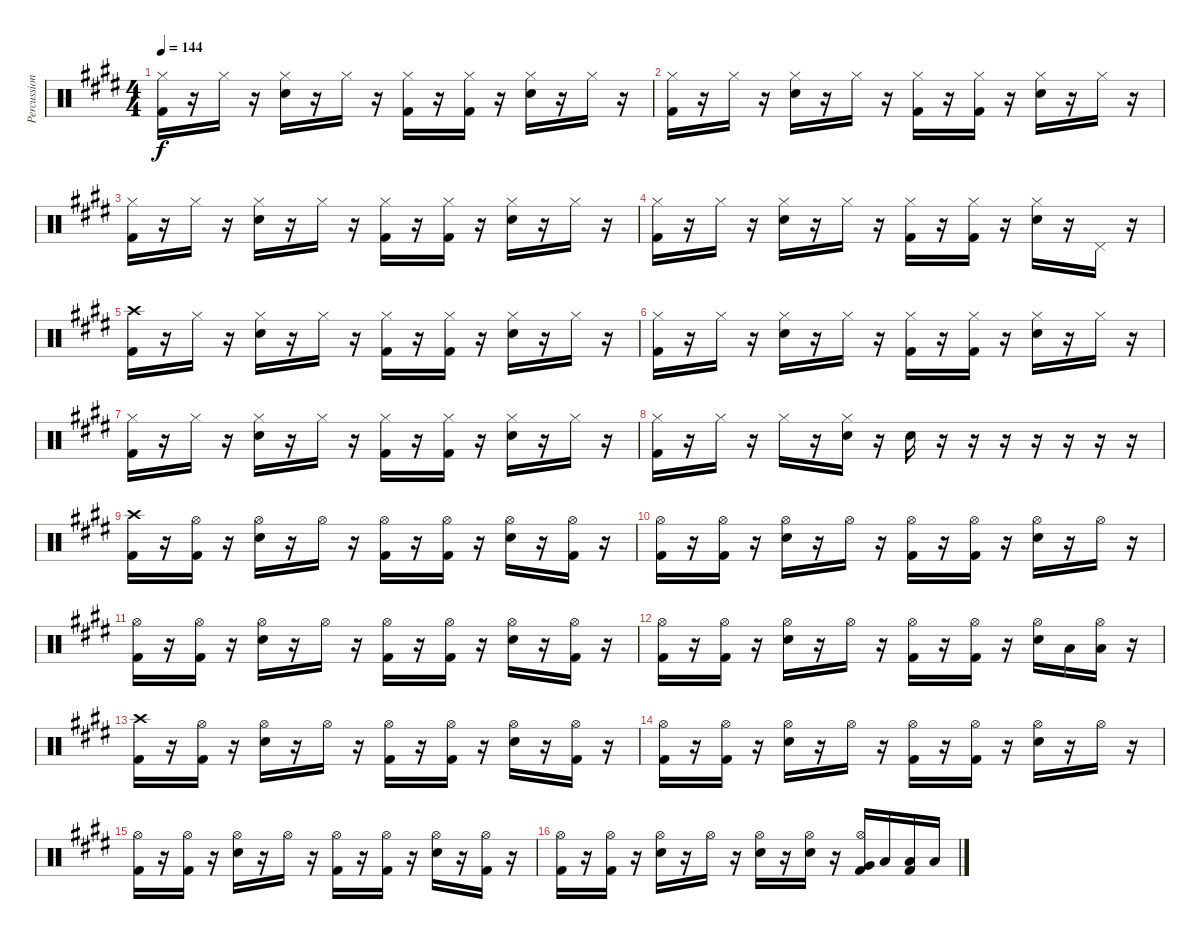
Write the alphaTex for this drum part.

\track ("Percussion" "Percussion") {instrument percussion}
\staff {score}
\articulation defaults
\ts (4 4)
\tempo 144
\clef neutral
\ks e
("Hi-Hat (closed)" "Kick (hit) 2").16{dy f} r.16 "Hi-Hat (closed)".16 r.16 ("Hi-Hat (closed)" "Snare (hit) 2").16 r.16 "Hi-Hat (closed)".16 r.16 ("Hi-Hat (closed)" "Kick (hit) 2").16 r.16 ("Hi-Hat (closed)" "Kick (hit) 2").16 r.16 ("Hi-Hat (closed)" "Snare (hit) 2").16 r.16 "Hi-Hat (closed)".16 r.16 |
("Hi-Hat (closed)" "Kick (hit) 2").16 r.16 "Hi-Hat (closed)".16 r.16 ("Hi-Hat (closed)" "Snare (hit) 2").16 r.16 "Hi-Hat (closed)".16 r.16 ("Hi-Hat (closed)" "Kick (hit) 2").16 r.16 ("Hi-Hat (closed)" "Kick (hit) 2").16 r.16 ("Hi-Hat (closed)" "Snare (hit) 2").16 r.16 "Hi-Hat (closed)".16 r.16 |
("Hi-Hat (closed)" "Kick (hit) 2").16 r.16 "Hi-Hat (closed)".16 r.16 ("Hi-Hat (closed)" "Snare (hit) 2").16 r.16 "Hi-Hat (closed)".16 r.16 ("Hi-Hat (closed)" "Kick (hit) 2").16 r.16 ("Hi-Hat (closed)" "Kick (hit) 2").16 r.16 ("Hi-Hat (closed)" "Snare (hit) 2").16 r.16 "Hi-Hat (closed)".16 r.16 |
("Hi-Hat (closed)" "Kick (hit) 2").16 r.16 "Hi-Hat (closed)".16 r.16 ("Hi-Hat (closed)" "Snare (hit) 2").16 r.16 "Hi-Hat (closed)".16 r.16 ("Hi-Hat (closed)" "Kick (hit) 2").16 r.16 ("Hi-Hat (closed)" "Kick (hit) 2").16 r.16 ("Hi-Hat (closed)" "Snare (hit) 2").16 r.16 "Pedal Hi-Hat (hit)".16 r.16 |
("Crash high (hit)" "Kick (hit) 2").16 r.16 "Hi-Hat (closed)".16 r.16 ("Hi-Hat (closed)" "Snare (hit) 2").16 r.16 "Hi-Hat (closed)".16 r.16 ("Hi-Hat (closed)" "Kick (hit) 2").16 r.16 ("Hi-Hat (closed)" "Kick (hit) 2").16 r.16 ("Hi-Hat (closed)" "Snare (hit) 2").16 r.16 "Hi-Hat (closed)".16 r.16 |
("Hi-Hat (closed)" "Kick (hit) 2").16 r.16 "Hi-Hat (closed)".16 r.16 ("Hi-Hat (closed)" "Snare (hit) 2").16 r.16 "Hi-Hat (closed)".16 r.16 ("Hi-Hat (closed)" "Kick (hit) 2").16 r.16 ("Hi-Hat (closed)" "Kick (hit) 2").16 r.16 ("Hi-Hat (closed)" "Snare (hit) 2").16 r.16 "Hi-Hat (closed)".16 r.16 |
("Hi-Hat (closed)" "Kick (hit) 2").16 r.16 "Hi-Hat (closed)".16 r.16 ("Hi-Hat (closed)" "Snare (hit) 2").16 r.16 "Hi-Hat (closed)".16 r.16 ("Hi-Hat (closed)" "Kick (hit) 2").16 r.16 ("Hi-Hat (closed)" "Kick (hit) 2").16 r.16 ("Hi-Hat (closed)" "Snare (hit) 2").16 r.16 "Hi-Hat (closed)".16 r.16 |
("Hi-Hat (closed)" "Kick (hit) 2").16 r.16 "Hi-Hat (closed)".16 r.16 "Hi-Hat (closed)".16 r.16 ("Hi-Hat (closed)" "Snare (hit) 2").16 r.16 "Snare (hit) 2".16 r.16 r.16 r.16 r.16 r.16 r.16 r.16 |
("Crash high (hit)" "Kick (hit) 2").16 r.16 ("Hi-Hat (open)" "Kick (hit) 2").16 r.16 ("Hi-Hat (open)" "Snare (hit) 2").16 r.16 "Hi-Hat (open)".16 r.16 ("Hi-Hat (open)" "Kick (hit) 2").16 r.16 ("Hi-Hat (open)" "Kick (hit) 2").16 r.16 ("Hi-Hat (open)" "Snare (hit) 2").16 r.16 ("Hi-Hat (open)" "Kick (hit) 2").16 r.16 |
("Hi-Hat (open)" "Kick (hit) 2").16 r.16 ("Hi-Hat (open)" "Kick (hit) 2").16 r.16 ("Hi-Hat (open)" "Snare (hit) 2").16 r.16 "Hi-Hat (open)".16 r.16 ("Hi-Hat (open)" "Kick (hit) 2").16 r.16 ("Hi-Hat (open)" "Kick (hit) 2").16 r.16 ("Hi-Hat (open)" "Snare (hit) 2").16 r.16 "Hi-Hat (open)".16 r.16 |
("Hi-Hat (open)" "Kick (hit) 2").16 r.16 ("Hi-Hat (open)" "Kick (hit) 2").16 r.16 ("Hi-Hat (open)" "Snare (hit) 2").16 r.16 "Hi-Hat (open)".16 r.16 ("Hi-Hat (open)" "Kick (hit) 2").16 r.16 ("Hi-Hat (open)" "Kick (hit) 2").16 r.16 ("Hi-Hat (open)" "Snare (hit) 2").16 r.16 ("Hi-Hat (open)" "Kick (hit) 2").16 r.16 |
("Hi-Hat (open)" "Kick (hit) 2").16 r.16 ("Hi-Hat (open)" "Kick (hit) 2").16 r.16 ("Hi-Hat (open)" "Snare (hit) 2").16 r.16 "Hi-Hat (open)".16 r.16 ("Hi-Hat (open)" "Kick (hit) 2").16 r.16 ("Hi-Hat (open)" "Kick (hit) 2").16 r.16 ("Hi-Hat (open)" "Snare (hit) 2").16 "Low Tom (hit)".16 ("Hi-Hat (open)" "Low Tom (hit)").16 r.16 |
("Crash high (hit)" "Kick (hit) 2").16 r.16 ("Hi-Hat (open)" "Kick (hit) 2").16 r.16 ("Hi-Hat (open)" "Snare (hit) 2").16 r.16 "Hi-Hat (open)".16 r.16 ("Hi-Hat (open)" "Kick (hit) 2").16 r.16 ("Hi-Hat (open)" "Kick (hit) 2").16 r.16 ("Hi-Hat (open)" "Snare (hit) 2").16 r.16 ("Hi-Hat (open)" "Kick (hit) 2").16 r.16 |
("Hi-Hat (open)" "Kick (hit) 2").16 r.16 ("Hi-Hat (open)" "Kick (hit) 2").16 r.16 ("Hi-Hat (open)" "Snare (hit) 2").16 r.16 "Hi-Hat (open)".16 r.16 ("Hi-Hat (open)" "Kick (hit) 2").16 r.16 ("Hi-Hat (open)" "Kick (hit) 2").16 r.16 ("Hi-Hat (open)" "Snare (hit) 2").16 r.16 "Hi-Hat (open)".16 r.16 |
("Hi-Hat (open)" "Kick (hit) 2").16 r.16 ("Hi-Hat (open)" "Kick (hit) 2").16 r.16 ("Hi-Hat (open)" "Snare (hit) 2").16 r.16 "Hi-Hat (open)".16 r.16 ("Hi-Hat (open)" "Kick (hit) 2").16 r.16 ("Hi-Hat (open)" "Kick (hit) 2").16 r.16 ("Hi-Hat (open)" "Snare (hit) 2").16 r.16 ("Hi-Hat (open)" "Kick (hit) 2").16 r.16 |
("Hi-Hat (open)" "Kick (hit) 2").16 r.16 ("Hi-Hat (open)" "Kick (hit) 2").16 r.16 ("Hi-Hat (open)" "Snare (hit) 2").16 r.16 "Hi-Hat (open)".16 r.16 ("Hi-Hat (open)" "Snare (hit) 2").16 r.16 ("Hi-Hat (open)" "Snare (hit) 2").16 r.16 ("Hi-Hat (open)" "Very Low Tom (hit)" "Kick (hit) 2").16 "Low Tom (hit)".16 ("Low Tom (hit)" "Kick (hit) 2").16 "Low Tom (hit)".16
